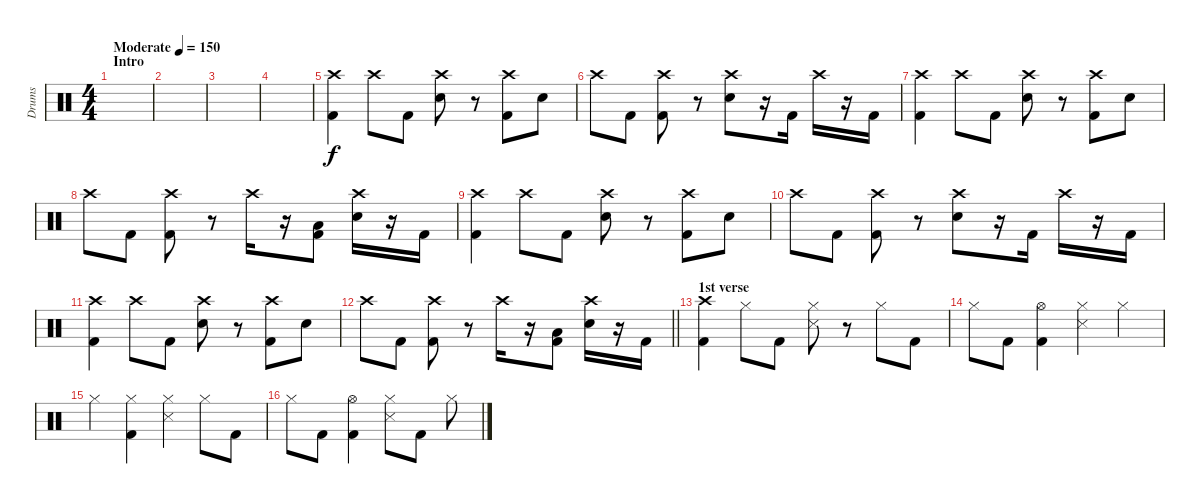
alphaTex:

\track ("Drums" "Drums") {instrument percussion}
\staff {score}
\articulation defaults
\ts (4 4)
\section ("" "Intro")
\tempo (150 "Moderate")
\clef neutral
\ks c
|
|
|
|
("Crash high (hit)" "Kick (hit) 2").4 "Crash high (hit)".8 "Kick (hit) 2".8 ("Crash high (hit)" "Snare (hit) 2").8 r.8 ("Crash high (hit)" "Kick (hit) 2").8 "Snare (hit) 2".8 |
"Crash high (hit)".8 "Kick (hit) 2".8 ("Crash high (hit)" "Kick (hit) 2").8 r.8 ("Crash high (hit)" "Snare (hit) 2").8 r.16 "Kick (hit) 2".16 "Crash high (hit)".16 r.16 "Kick (hit) 2".16 |
("Crash high (hit)" "Kick (hit) 2").4 "Crash high (hit)".8 "Kick (hit) 2".8 ("Crash high (hit)" "Snare (hit) 2").8 r.8 ("Crash high (hit)" "Kick (hit) 2").8 "Snare (hit) 2".8 |
"Crash high (hit)".8 "Kick (hit) 2".8 ("Crash high (hit)" "Kick (hit) 2").8 r.8 "Crash high (hit)".16 r.16 ("Low Tom (hit)" "Kick (hit) 2").8 ("Crash high (hit)" "Snare (hit) 2").16 r.16 "Kick (hit) 2".16 |
("Crash high (hit)" "Kick (hit) 2").4 "Crash high (hit)".8 "Kick (hit) 2".8 ("Crash high (hit)" "Snare (hit) 2").8 r.8 ("Crash high (hit)" "Kick (hit) 2").8 "Snare (hit) 2".8 |
"Crash high (hit)".8 "Kick (hit) 2".8 ("Crash high (hit)" "Kick (hit) 2").8 r.8 ("Crash high (hit)" "Snare (hit) 2").8 r.16 "Kick (hit) 2".16 "Crash high (hit)".16 r.16 "Kick (hit) 2".16 |
("Crash high (hit)" "Kick (hit) 2").4 "Crash high (hit)".8 "Kick (hit) 2".8 ("Crash high (hit)" "Snare (hit) 2").8 r.8 ("Crash high (hit)" "Kick (hit) 2").8 "Snare (hit) 2".8 |
\barLineRight lightlight "Crash high (hit)".8 "Kick (hit) 2".8
("Crash high (hit)" "Kick (hit) 2").8 r.8 "Crash high (hit)".16 r.16 ("Low Tom (hit)" "Kick (hit) 2").8 ("Crash high (hit)" "Snare (hit) 2").16 r.16 "Kick (hit) 2".16 |
\section ("" "1st verse")
("Crash high (hit)" "Kick (hit) 2").4 "Hi-Hat (closed)".8 "Kick (hit) 2".8 ("Hi-Hat (closed)" "Snare (side stick) 3").8 r.8 "Hi-Hat (closed)".8 "Kick (hit) 2".8 |
"Hi-Hat (closed)".8 "Kick (hit) 2".8 ("Hi-Hat (open)" "Kick (hit) 2").4 ("Hi-Hat (closed)" "Snare (side stick) 3").4 "Hi-Hat (closed)".4 |
"Hi-Hat (closed)".4 ("Hi-Hat (closed)" "Kick (hit) 2").4 ("Hi-Hat (closed)" "Snare (side stick) 3").4 "Hi-Hat (closed)".8 "Kick (hit) 2".8 |
"Hi-Hat (closed)".8 "Kick (hit) 2".8 ("Hi-Hat (open)" "Kick (hit) 2").4 ("Hi-Hat (closed)" "Snare (side stick) 3").8 "Kick (hit) 2".8 "Hi-Hat (closed)".8
